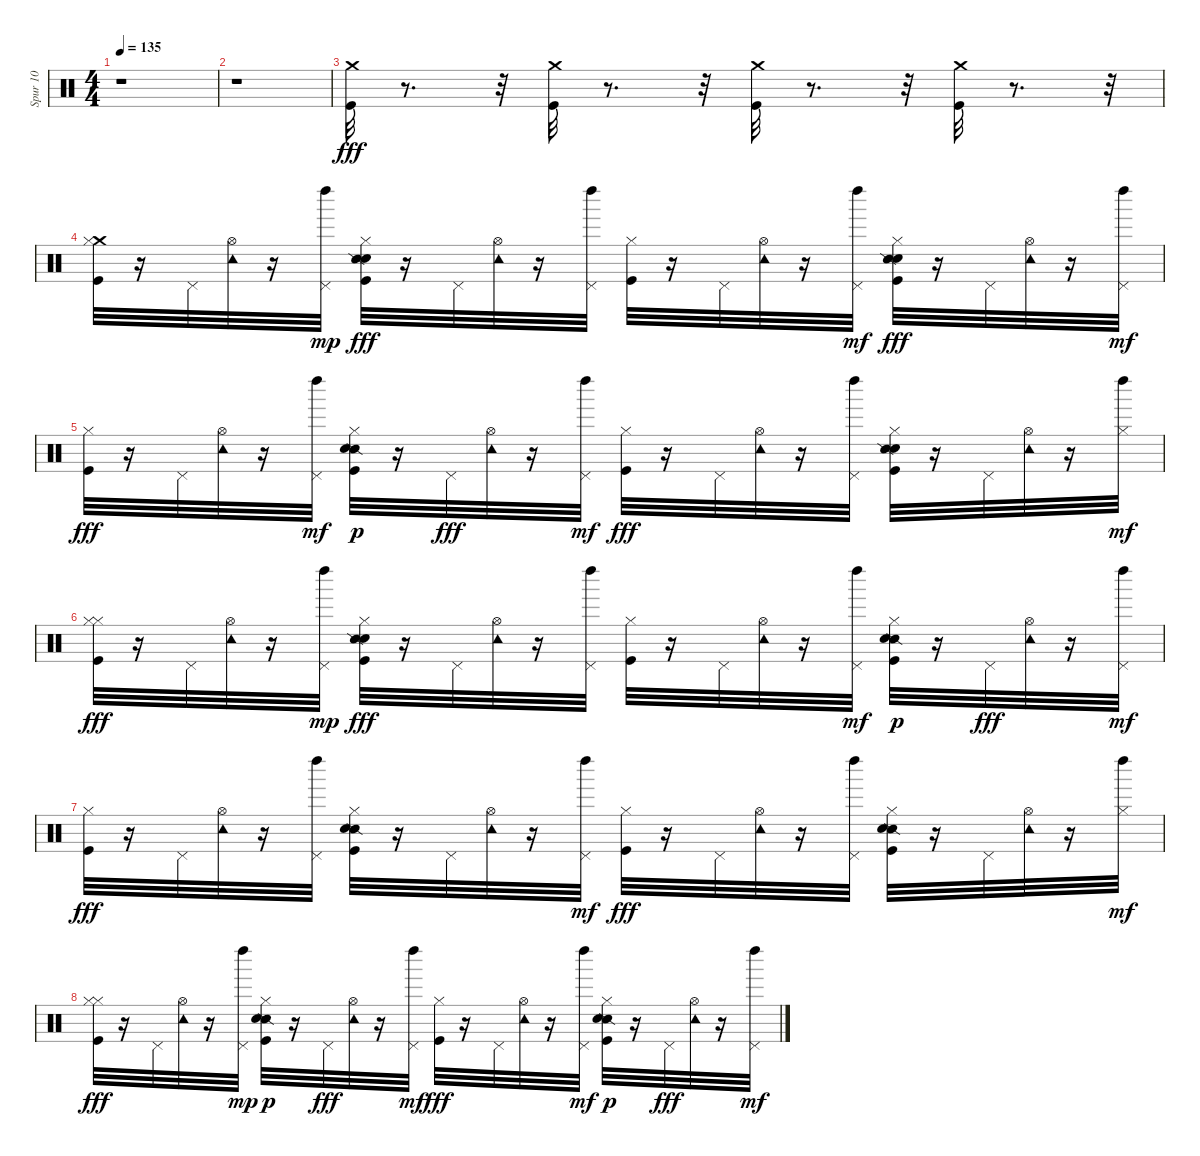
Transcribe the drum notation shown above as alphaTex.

\track ("Spur 10" "Spur 10") {instrument percussion}
\staff {score}
\articulation defaults
\ts (4 4)
\tempo 135
\clef neutral
\ks c
r.1{dy fff} |
r.1 |
("Crash medium (hit)" "Kick (hit)").32 r.8{d} r.32 ("Crash medium (hit)" "Kick (hit)").32 r.8{d} r.32 ("Crash medium (hit)" "Kick (hit)").32 r.8{d} r.32 ("Crash medium (hit)" "Kick (hit)").32 r.8{d} r.32 |
("Crash medium (hit)" "Hi-Hat (closed)" "Kick (hit)").32 r.16 "Pedal Hi-Hat (hit)".32 ("Tambourine (hit)" "Hi-Hat (open)").32 r.16 ("Pedal Hi-Hat (hit)" "Left Maraca (hit)").32{dy mp} ("Hand Clap (hit)" "Kick (hit)" "Hi-Hat (closed)" "Snare (side stick) 2").32{dy fff} r.16 "Pedal Hi-Hat (hit)".32 ("Tambourine (hit)" "Hi-Hat (open)").32 r.16 ("Left Maraca (hit)" "Pedal Hi-Hat (hit)").32 ("Hi-Hat (closed)" "Kick (hit)").32 r.16 "Pedal Hi-Hat (hit)".32 ("Tambourine (hit)" "Hi-Hat (open)").32 r.16 ("Left Maraca (hit)" "Pedal Hi-Hat (hit)").32{dy mf} ("Hand Clap (hit)" "Kick (hit)" "Hi-Hat (closed)" "Snare (side stick) 2").32{dy fff} r.16 "Pedal Hi-Hat (hit)".32 ("Tambourine (hit)" "Hi-Hat (open)").32 r.16 ("Pedal Hi-Hat (hit)" "Left Maraca (hit)").32{dy mf} |
("Kick (hit)" "Hi-Hat (closed)").32{dy fff} r.16 "Pedal Hi-Hat (hit)".32 ("Hi-Hat (open)" "Tambourine (hit)").32 r.16 ("Pedal Hi-Hat (hit)" "Left Maraca (hit)").32{dy mf} ("Kick (hit)" "Hi-Hat (closed)" "Snare (side stick) 2" "Hand Clap (hit)").32{dy p} r.16 "Pedal Hi-Hat (hit)".32{dy fff} ("Hi-Hat (open)" "Tambourine (hit)").32 r.16 ("Pedal Hi-Hat (hit)" "Left Maraca (hit)").32{dy mf} ("Hi-Hat (closed)" "Kick (hit)").32{dy fff} r.16 "Pedal Hi-Hat (hit)".32 ("Hi-Hat (open)" "Tambourine (hit)").32 r.16 ("Left Maraca (hit)" "Pedal Hi-Hat (hit)").32 ("Kick (hit)" "Hand Clap (hit)" "Hi-Hat (closed)" "Snare (side stick) 2").32 r.16 "Pedal Hi-Hat (hit)".32 ("Hi-Hat (open)" "Tambourine (hit)").32 r.16 ("Left Maraca (hit)" "Hi-Hat (closed)").32{dy mf} |
("Hi-Hat (closed)" "Hi-Hat (closed)" "Kick (hit)").32{dy fff} r.16 "Pedal Hi-Hat (hit)".32 ("Hi-Hat (open)" "Tambourine (hit)").32 r.16 ("Pedal Hi-Hat (hit)" "Left Maraca (hit)").32{dy mp} ("Hand Clap (hit)" "Hi-Hat (closed)" "Kick (hit)" "Snare (side stick) 2").32{dy fff} r.16 "Pedal Hi-Hat (hit)".32 ("Hi-Hat (open)" "Tambourine (hit)").32 r.16 ("Left Maraca (hit)" "Pedal Hi-Hat (hit)").32 ("Hi-Hat (closed)" "Kick (hit)").32 r.16 "Pedal Hi-Hat (hit)".32 ("Hi-Hat (open)" "Tambourine (hit)").32 r.16 ("Left Maraca (hit)" "Pedal Hi-Hat (hit)").32{dy mf} ("Kick (hit)" "Hi-Hat (closed)" "Snare (side stick) 2" "Hand Clap (hit)").32{dy p} r.16 "Pedal Hi-Hat (hit)".32{dy fff} ("Hi-Hat (open)" "Tambourine (hit)").32 r.16 ("Pedal Hi-Hat (hit)" "Left Maraca (hit)").32{dy mf} |
("Hi-Hat (closed)" "Kick (hit)").32{dy fff} r.16 "Pedal Hi-Hat (hit)".32 ("Hi-Hat (open)" "Tambourine (hit)").32 r.16 ("Left Maraca (hit)" "Pedal Hi-Hat (hit)").32 ("Kick (hit)" "Snare (side stick) 2" "Hand Clap (hit)" "Hi-Hat (closed)").32 r.16 "Pedal Hi-Hat (hit)".32 ("Hi-Hat (open)" "Tambourine (hit)").32 r.16 ("Pedal Hi-Hat (hit)" "Left Maraca (hit)").32{dy mf} ("Kick (hit)" "Hi-Hat (closed)").32{dy fff} r.16 "Pedal Hi-Hat (hit)".32 ("Tambourine (hit)" "Hi-Hat (open)").32 r.16 ("Left Maraca (hit)" "Pedal Hi-Hat (hit)").32 ("Snare (side stick) 2" "Hand Clap (hit)" "Kick (hit)" "Hi-Hat (closed)").32 r.16 "Pedal Hi-Hat (hit)".32 ("Tambourine (hit)" "Hi-Hat (open)").32 r.16 ("Hi-Hat (closed)" "Left Maraca (hit)").32{dy mf} |
("Hi-Hat (closed)" "Hi-Hat (closed)" "Kick (hit)").32{dy fff} r.16 "Pedal Hi-Hat (hit)".32 ("Hi-Hat (open)" "Tambourine (hit)").32 r.16 ("Pedal Hi-Hat (hit)" "Left Maraca (hit)").32{dy mp} ("Snare (side stick) 2" "Hi-Hat (closed)" "Kick (hit)" "Hand Clap (hit)").32{dy p} r.16 "Pedal Hi-Hat (hit)".32{dy fff} ("Hi-Hat (open)" "Tambourine (hit)").32 r.16 ("Pedal Hi-Hat (hit)" "Left Maraca (hit)").32{dy mf} ("Hi-Hat (closed)" "Kick (hit)").32{dy fff} r.16 "Pedal Hi-Hat (hit)".32 ("Hi-Hat (open)" "Tambourine (hit)").32 r.16 ("Left Maraca (hit)" "Pedal Hi-Hat (hit)").32{dy mf} ("Snare (side stick) 2" "Kick (hit)" "Hi-Hat (closed)" "Hand Clap (hit)").32{dy p} r.16 "Pedal Hi-Hat (hit)".32{dy fff} ("Tambourine (hit)" "Hi-Hat (open)").32 r.16 ("Pedal Hi-Hat (hit)" "Left Maraca (hit)").32{dy mf}
